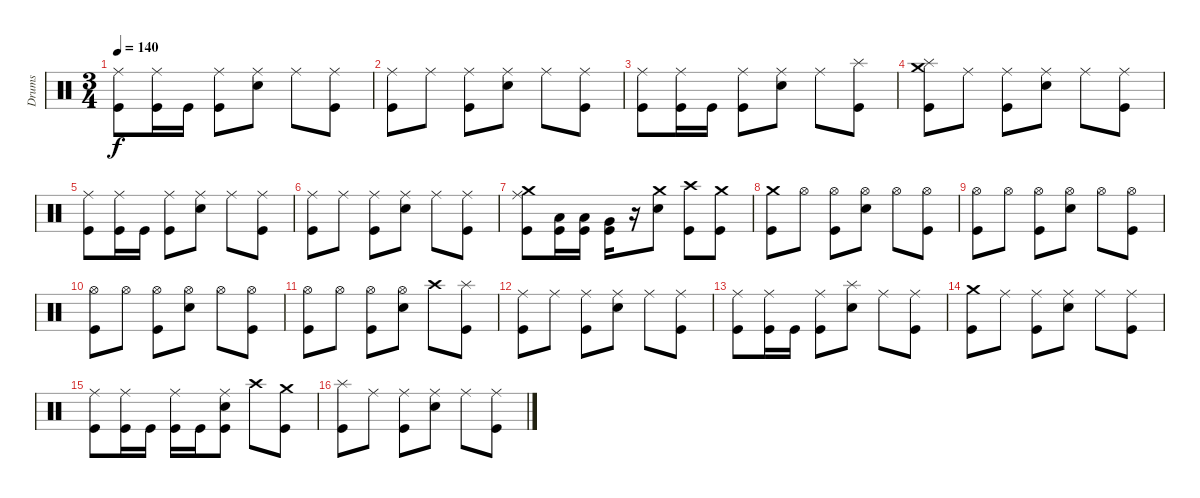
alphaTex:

\track ("Drums" "Drums") {instrument percussion}
\staff {score}
\articulation defaults
\ts (3 4)
\tempo 140
\clef neutral
\ks c
("Ride (middle)" "Kick (hit)").8{dy f} ("Ride (middle)" "Kick (hit)").16 "Kick (hit)".16 ("Ride (middle)" "Kick (hit)").8 ("Ride (middle)" "Snare (hit) 2").8 "Ride (middle)".8 ("Ride (middle)" "Kick (hit)").8 |
("Ride (middle)" "Kick (hit)").8 "Ride (middle)".8 ("Ride (middle)" "Kick (hit)").8 ("Ride (middle)" "Snare (hit) 2").8 "Ride (middle)".8 ("Ride (middle)" "Kick (hit)").8 |
("Ride (middle)" "Kick (hit)").8 ("Ride (middle)" "Kick (hit)").16 "Kick (hit)".16 ("Ride (middle)" "Kick (hit)").8 ("Ride (middle)" "Snare (hit) 2").8 "Ride (middle)".8 ("Splash (hit)" "Kick (hit)").8 |
("Crash medium (hit)" "Splash (hit)" "Kick (hit)").8 "Ride (middle)".8 ("Ride (middle)" "Kick (hit)").8 ("Ride (middle)" "Snare (hit) 2").8 "Ride (middle)".8 ("Ride (middle)" "Kick (hit)").8 |
("Ride (middle)" "Kick (hit)").8 ("Ride (middle)" "Kick (hit)").16 "Kick (hit)".16 ("Ride (middle)" "Kick (hit)").8 ("Ride (middle)" "Snare (hit) 2").8 "Ride (middle)".8 ("Ride (middle)" "Kick (hit)").8 |
("Ride (middle)" "Kick (hit)").8 "Ride (middle)".8 ("Ride (middle)" "Kick (hit)").8 ("Ride (middle)" "Snare (hit) 2").8 "Ride (middle)".8 ("Ride (middle)" "Kick (hit)").8 |
("Crash medium (hit)" "Ride (middle)" "Kick (hit)").8 ("Low Tom (hit)" "Kick (hit)").16 ("Low Tom (hit)" "Kick (hit)").16 ("Very Low Tom (hit)" "Kick (hit)").16 r.16 ("Crash medium (hit)" "Snare (hit) 2").8 ("Crash high (hit)" "Kick (hit)").8 ("Crash medium (hit)" "Kick (hit)").8 |
("Crash medium (hit)" "Kick (hit)").8 "Hi-Hat (open)".8 ("Hi-Hat (open)" "Kick (hit)").8 ("Hi-Hat (open)" "Snare (hit) 2").8 "Hi-Hat (open)".8 ("Hi-Hat (open)" "Kick (hit)").8 |
("Hi-Hat (open)" "Kick (hit)").8 "Hi-Hat (open)".8 ("Hi-Hat (open)" "Kick (hit)").8 ("Hi-Hat (open)" "Snare (hit) 2").8 "Hi-Hat (open)".8 ("Hi-Hat (open)" "Kick (hit)").8 |
("Hi-Hat (open)" "Kick (hit)").8 "Hi-Hat (open)".8 ("Hi-Hat (open)" "Kick (hit)").8 ("Hi-Hat (open)" "Snare (hit) 2").8 "Hi-Hat (open)".8 ("Hi-Hat (open)" "Kick (hit)").8 |
("Hi-Hat (open)" "Kick (hit)").8 "Hi-Hat (open)".8 ("Hi-Hat (open)" "Kick (hit)").8 ("Hi-Hat (open)" "Snare (hit) 2").8 "Crash high (hit)".8 ("Splash (hit)" "Kick (hit)").8 |
("Ride (middle)" "Kick (hit)").8 "Ride (middle)".8 ("Ride (middle)" "Kick (hit)").8 ("Ride (middle)" "Snare (hit) 2").8 "Ride (middle)".8 ("Ride (middle)" "Kick (hit)").8 |
("Ride (middle)" "Kick (hit)").8 ("Ride (middle)" "Kick (hit)").16 "Kick (hit)".16 ("Ride (middle)" "Kick (hit)").8 ("Splash (hit)" "Snare (hit) 2").8 "Ride (middle)".8 ("Ride (middle)" "Kick (hit)").8 |
("Crash medium (hit)" "Kick (hit)").8 "Ride (middle)".8 ("Ride (middle)" "Kick (hit)").8 ("Ride (middle)" "Snare (hit) 2").8 "Ride (middle)".8 ("Ride (middle)" "Kick (hit)").8 |
("Ride (middle)" "Kick (hit)").8 ("Ride (middle)" "Kick (hit)").16 "Kick (hit)".16 ("Ride (middle)" "Kick (hit)").16 "Kick (hit)".16 ("Ride (middle)" "Snare (hit) 2" "Kick (hit)").8 "Crash high (hit)".8 ("Crash medium (hit)" "Kick (hit)").8 |
("Splash (hit)" "Kick (hit)").8 "Ride (middle)".8 ("Ride (middle)" "Kick (hit)").8 ("Ride (middle)" "Snare (hit) 2").8 "Ride (middle)".8 ("Ride (middle)" "Kick (hit)").8
